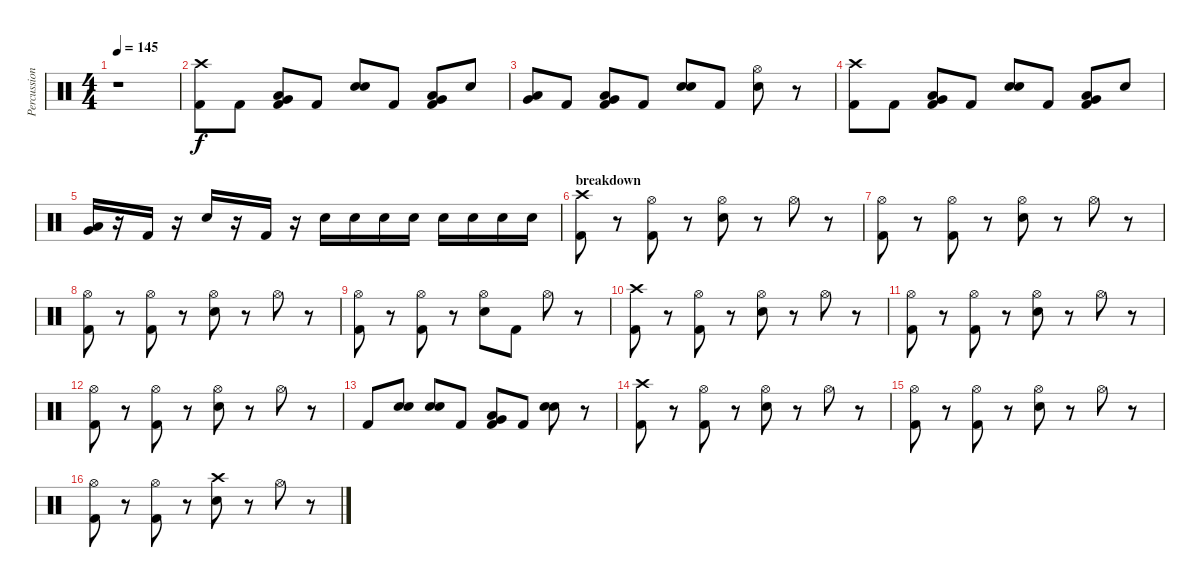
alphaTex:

\track ("Percussion" "Percussion") {instrument percussion}
\staff {score}
\articulation defaults
\ts (4 4)
\tempo 145
\clef neutral
\ks c
r.1{dy f} |
("Crash high (hit)" "Kick (hit) 2").8 "Kick (hit) 2".8 ("Low Tom (hit)" "Very Low Tom (hit)" "Kick (hit) 2").8 "Kick (hit) 2".8 ("Electric Snare (hit)" "Electric Snare (hit)").8 "Kick (hit) 2".8 ("Low Tom (hit)" "Very Low Tom (hit)" "Kick (hit) 2").8 "Electric Snare (hit)".8 |
("Low Tom (hit)" "Very Low Tom (hit)").8 "Kick (hit) 2".8 ("Low Tom (hit)" "Very Low Tom (hit)" "Kick (hit) 2").8 "Kick (hit) 2".8 ("Electric Snare (hit)" "Electric Snare (hit)").8 "Kick (hit) 2".8 ("Hi-Hat (open)" "Electric Snare (hit)").8 r.8 |
("Crash high (hit)" "Kick (hit) 2").8 "Kick (hit) 2".8 ("Low Tom (hit)" "Very Low Tom (hit)" "Kick (hit) 2").8 "Kick (hit) 2".8 ("Electric Snare (hit)" "Electric Snare (hit)").8 "Kick (hit) 2".8 ("Low Tom (hit)" "Very Low Tom (hit)" "Kick (hit) 2").8 "Electric Snare (hit)".8 |
("Low Tom (hit)" "Very Low Tom (hit)").16 r.16 "Kick (hit) 2".16 r.16 "Electric Snare (hit)".16 r.16 "Kick (hit) 2".16 r.16 "Electric Snare (hit)".16 "Electric Snare (hit)".16 "Electric Snare (hit)".16 "Electric Snare (hit)".16 "Electric Snare (hit)".16 "Electric Snare (hit)".16 "Electric Snare (hit)".16 "Electric Snare (hit)".16 |
\section ("" "breakdown")
("Crash high (hit)" "Kick (hit) 2").8 r.8 ("Hi-Hat (open)" "Kick (hit) 2").8 r.8 ("Hi-Hat (open)" "Electric Snare (hit)").8 r.8 "Hi-Hat (open)".8 r.8 |
("Hi-Hat (open)" "Kick (hit) 2").8 r.8 ("Hi-Hat (open)" "Kick (hit) 2").8 r.8 ("Hi-Hat (open)" "Electric Snare (hit)").8 r.8 "Hi-Hat (open)".8 r.8 |
("Hi-Hat (open)" "Kick (hit) 2").8 r.8 ("Hi-Hat (open)" "Kick (hit) 2").8 r.8 ("Hi-Hat (open)" "Electric Snare (hit)").8 r.8 "Hi-Hat (open)".8 r.8 |
("Hi-Hat (open)" "Kick (hit) 2").8 r.8 ("Hi-Hat (open)" "Kick (hit) 2").8 r.8 ("Hi-Hat (open)" "Electric Snare (hit)").8 "Kick (hit) 2".8 "Hi-Hat (open)".8 r.8 |
("Crash high (hit)" "Kick (hit) 2").8 r.8 ("Hi-Hat (open)" "Kick (hit) 2").8 r.8 ("Hi-Hat (open)" "Electric Snare (hit)").8 r.8 "Hi-Hat (open)".8 r.8 |
("Hi-Hat (open)" "Kick (hit) 2").8 r.8 ("Hi-Hat (open)" "Kick (hit) 2").8 r.8 ("Hi-Hat (open)" "Electric Snare (hit)").8 r.8 "Hi-Hat (open)".8 r.8 |
("Hi-Hat (open)" "Kick (hit) 2").8 r.8 ("Hi-Hat (open)" "Kick (hit) 2").8 r.8 ("Hi-Hat (open)" "Electric Snare (hit)").8 r.8 "Hi-Hat (open)".8 r.8 |
"Kick (hit) 2".8 ("Electric Snare (hit)" "Electric Snare (hit)").8 ("Electric Snare (hit)" "Electric Snare (hit)").8 "Kick (hit) 2".8 ("Low Tom (hit)" "Very Low Tom (hit)" "Kick (hit) 2").8 "Kick (hit) 2".8 ("Electric Snare (hit)" "Electric Snare (hit)").8 r.8 |
("Crash high (hit)" "Kick (hit) 2").8 r.8 ("Hi-Hat (open)" "Kick (hit) 2").8 r.8 ("Hi-Hat (open)" "Electric Snare (hit)").8 r.8 "Hi-Hat (open)".8 r.8 |
("Hi-Hat (open)" "Kick (hit) 2").8 r.8 ("Hi-Hat (open)" "Kick (hit) 2").8 r.8 ("Hi-Hat (open)" "Electric Snare (hit)").8 r.8 "Hi-Hat (open)".8 r.8 |
("Hi-Hat (open)" "Kick (hit) 2").8 r.8 ("Hi-Hat (open)" "Kick (hit) 2").8 r.8 ("Crash high (hit)" "Electric Snare (hit)").8 r.8 "Hi-Hat (open)".8 r.8
